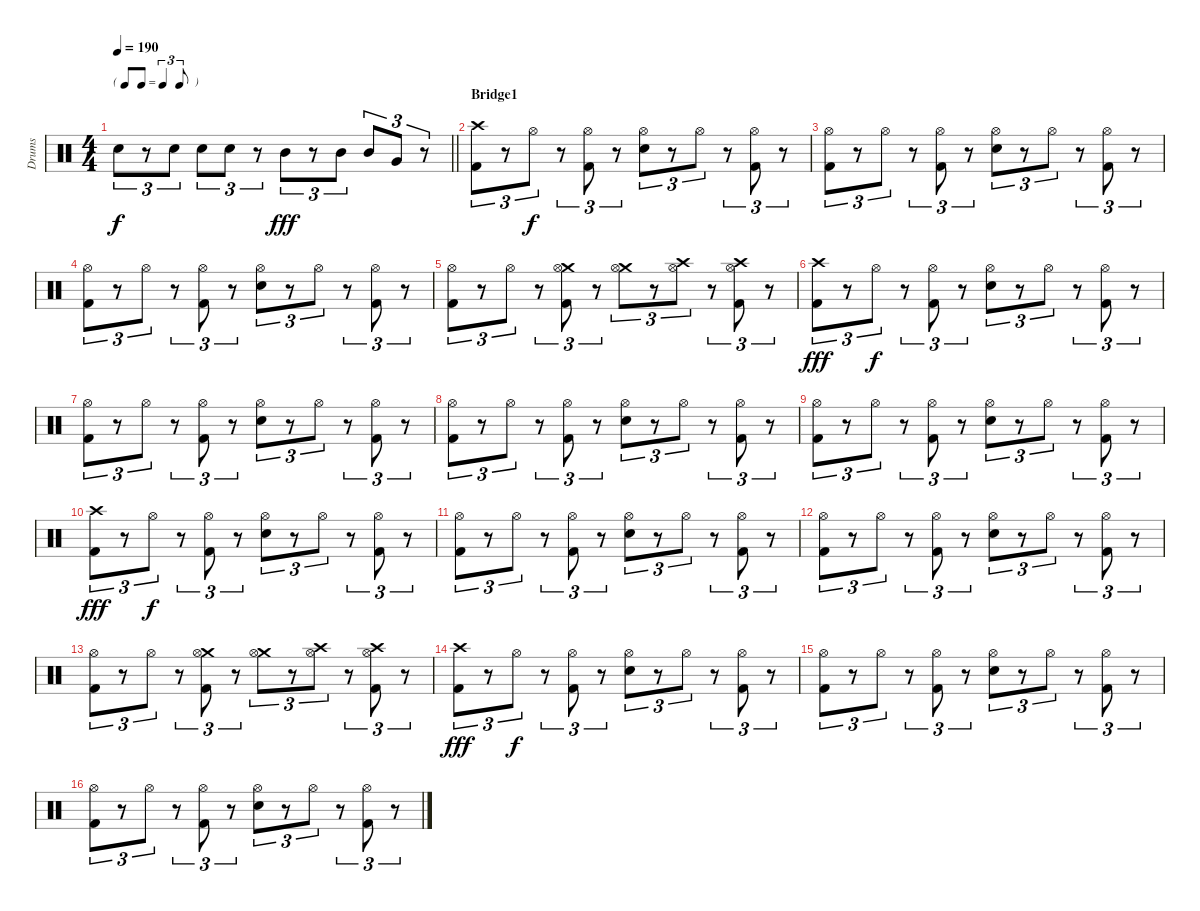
\track ("Drums" "Drums") {instrument percussion}
\staff {score}
\articulation defaults
\ts (4 4)
\tf triplet8th
\tempo 190
\clef neutral
\barLineRight lightlight
\ks c "Electric Snare (hit)".8{tu (3 2) dy f}
r.8{tu (3 2)} "Electric Snare (hit)".8{tu (3 2)} "Electric Snare (hit)".8{tu (3 2)} "Electric Snare (hit)".8{tu (3 2)} r.8{tu (3 2)} "Mid Tom (hit)".8{tu (3 2) dy fff} r.8{tu (3 2)} "Mid Tom (hit)".8{tu (3 2)} "Mid Tom (hit)".8{tu (3 2)} "Very Low Tom (hit)".8{tu (3 2)} r.8{tu (3 2)} |
\section ("" "Bridge1")
("Crash high (hit)" "Kick (hit) 2").8{tu (3 2)} r.8{tu (3 2)} "Hi-Hat (open)".8{tu (3 2) dy f} r.8{tu (3 2)} ("Hi-Hat (open)" "Kick (hit) 2").8{tu (3 2)} r.8{tu (3 2)} ("Hi-Hat (open)" "Electric Snare (hit)").8{tu (3 2)} r.8{tu (3 2)} "Hi-Hat (open)".8{tu (3 2)} r.8{tu (3 2)} ("Hi-Hat (open)" "Kick (hit) 2").8{tu (3 2)} r.8{tu (3 2)} |
("Hi-Hat (open)" "Kick (hit) 2").8{tu (3 2)} r.8{tu (3 2)} "Hi-Hat (open)".8{tu (3 2)} r.8{tu (3 2)} ("Hi-Hat (open)" "Kick (hit) 2").8{tu (3 2)} r.8{tu (3 2)} ("Hi-Hat (open)" "Electric Snare (hit)").8{tu (3 2)} r.8{tu (3 2)} "Hi-Hat (open)".8{tu (3 2)} r.8{tu (3 2)} ("Hi-Hat (open)" "Kick (hit) 2").8{tu (3 2)} r.8{tu (3 2)} |
("Hi-Hat (open)" "Kick (hit) 2").8{tu (3 2)} r.8{tu (3 2)} "Hi-Hat (open)".8{tu (3 2)} r.8{tu (3 2)} ("Hi-Hat (open)" "Kick (hit) 2").8{tu (3 2)} r.8{tu (3 2)} ("Hi-Hat (open)" "Electric Snare (hit)").8{tu (3 2)} r.8{tu (3 2)} "Hi-Hat (open)".8{tu (3 2)} r.8{tu (3 2)} ("Hi-Hat (open)" "Kick (hit) 2").8{tu (3 2)} r.8{tu (3 2)} |
("Hi-Hat (open)" "Kick (hit) 2").8{tu (3 2)} r.8{tu (3 2)} "Hi-Hat (open)".8{tu (3 2)} r.8{tu (3 2)} ("Crash medium (hit)" "Hi-Hat (open)" "Kick (hit) 2").8{tu (3 2)} r.8{tu (3 2)} ("Crash medium (hit)" "Hi-Hat (open)").8{tu (3 2)} r.8{tu (3 2)} ("Crash high (hit)" "Hi-Hat (open)").8{tu (3 2)} r.8{tu (3 2)} ("Crash high (hit)" "Hi-Hat (open)" "Kick (hit) 2").8{tu (3 2)} r.8{tu (3 2)} |
("Crash high (hit)" "Kick (hit) 2").8{tu (3 2) dy fff} r.8{tu (3 2)} "Hi-Hat (open)".8{tu (3 2) dy f} r.8{tu (3 2)} ("Hi-Hat (open)" "Kick (hit) 2").8{tu (3 2)} r.8{tu (3 2)} ("Hi-Hat (open)" "Electric Snare (hit)").8{tu (3 2)} r.8{tu (3 2)} "Hi-Hat (open)".8{tu (3 2)} r.8{tu (3 2)} ("Hi-Hat (open)" "Kick (hit) 2").8{tu (3 2)} r.8{tu (3 2)} |
("Hi-Hat (open)" "Kick (hit) 2").8{tu (3 2)} r.8{tu (3 2)} "Hi-Hat (open)".8{tu (3 2)} r.8{tu (3 2)} ("Hi-Hat (open)" "Kick (hit) 2").8{tu (3 2)} r.8{tu (3 2)} ("Hi-Hat (open)" "Electric Snare (hit)").8{tu (3 2)} r.8{tu (3 2)} "Hi-Hat (open)".8{tu (3 2)} r.8{tu (3 2)} ("Hi-Hat (open)" "Kick (hit) 2").8{tu (3 2)} r.8{tu (3 2)} |
("Hi-Hat (open)" "Kick (hit) 2").8{tu (3 2)} r.8{tu (3 2)} "Hi-Hat (open)".8{tu (3 2)} r.8{tu (3 2)} ("Hi-Hat (open)" "Kick (hit) 2").8{tu (3 2)} r.8{tu (3 2)} ("Hi-Hat (open)" "Electric Snare (hit)").8{tu (3 2)} r.8{tu (3 2)} "Hi-Hat (open)".8{tu (3 2)} r.8{tu (3 2)} ("Hi-Hat (open)" "Kick (hit) 2").8{tu (3 2)} r.8{tu (3 2)} |
("Hi-Hat (open)" "Kick (hit) 2").8{tu (3 2)} r.8{tu (3 2)} "Hi-Hat (open)".8{tu (3 2)} r.8{tu (3 2)} ("Hi-Hat (open)" "Kick (hit) 2").8{tu (3 2)} r.8{tu (3 2)} ("Hi-Hat (open)" "Electric Snare (hit)").8{tu (3 2)} r.8{tu (3 2)} "Hi-Hat (open)".8{tu (3 2)} r.8{tu (3 2)} ("Hi-Hat (open)" "Kick (hit) 2").8{tu (3 2)} r.8{tu (3 2)} |
("Crash high (hit)" "Kick (hit) 2").8{tu (3 2) dy fff} r.8{tu (3 2)} "Hi-Hat (open)".8{tu (3 2) dy f} r.8{tu (3 2)} ("Hi-Hat (open)" "Kick (hit) 2").8{tu (3 2)} r.8{tu (3 2)} ("Hi-Hat (open)" "Electric Snare (hit)").8{tu (3 2)} r.8{tu (3 2)} "Hi-Hat (open)".8{tu (3 2)} r.8{tu (3 2)} ("Hi-Hat (open)" "Kick (hit) 2").8{tu (3 2)} r.8{tu (3 2)} |
("Hi-Hat (open)" "Kick (hit) 2").8{tu (3 2)} r.8{tu (3 2)} "Hi-Hat (open)".8{tu (3 2)} r.8{tu (3 2)} ("Hi-Hat (open)" "Kick (hit) 2").8{tu (3 2)} r.8{tu (3 2)} ("Hi-Hat (open)" "Electric Snare (hit)").8{tu (3 2)} r.8{tu (3 2)} "Hi-Hat (open)".8{tu (3 2)} r.8{tu (3 2)} ("Hi-Hat (open)" "Kick (hit) 2").8{tu (3 2)} r.8{tu (3 2)} |
("Hi-Hat (open)" "Kick (hit) 2").8{tu (3 2)} r.8{tu (3 2)} "Hi-Hat (open)".8{tu (3 2)} r.8{tu (3 2)} ("Hi-Hat (open)" "Kick (hit) 2").8{tu (3 2)} r.8{tu (3 2)} ("Hi-Hat (open)" "Electric Snare (hit)").8{tu (3 2)} r.8{tu (3 2)} "Hi-Hat (open)".8{tu (3 2)} r.8{tu (3 2)} ("Hi-Hat (open)" "Kick (hit) 2").8{tu (3 2)} r.8{tu (3 2)} |
("Hi-Hat (open)" "Kick (hit) 2").8{tu (3 2)} r.8{tu (3 2)} "Hi-Hat (open)".8{tu (3 2)} r.8{tu (3 2)} ("Crash medium (hit)" "Hi-Hat (open)" "Kick (hit) 2").8{tu (3 2)} r.8{tu (3 2)} ("Crash medium (hit)" "Hi-Hat (open)").8{tu (3 2)} r.8{tu (3 2)} ("Crash high (hit)" "Hi-Hat (open)").8{tu (3 2)} r.8{tu (3 2)} ("Crash high (hit)" "Hi-Hat (open)" "Kick (hit) 2").8{tu (3 2)} r.8{tu (3 2)} |
("Crash high (hit)" "Kick (hit) 2").8{tu (3 2) dy fff} r.8{tu (3 2)} "Hi-Hat (open)".8{tu (3 2) dy f} r.8{tu (3 2)} ("Hi-Hat (open)" "Kick (hit) 2").8{tu (3 2)} r.8{tu (3 2)} ("Hi-Hat (open)" "Electric Snare (hit)").8{tu (3 2)} r.8{tu (3 2)} "Hi-Hat (open)".8{tu (3 2)} r.8{tu (3 2)} ("Hi-Hat (open)" "Kick (hit) 2").8{tu (3 2)} r.8{tu (3 2)} |
("Hi-Hat (open)" "Kick (hit) 2").8{tu (3 2)} r.8{tu (3 2)} "Hi-Hat (open)".8{tu (3 2)} r.8{tu (3 2)} ("Hi-Hat (open)" "Kick (hit) 2").8{tu (3 2)} r.8{tu (3 2)} ("Hi-Hat (open)" "Electric Snare (hit)").8{tu (3 2)} r.8{tu (3 2)} "Hi-Hat (open)".8{tu (3 2)} r.8{tu (3 2)} ("Hi-Hat (open)" "Kick (hit) 2").8{tu (3 2)} r.8{tu (3 2)} |
("Hi-Hat (open)" "Kick (hit) 2").8{tu (3 2)} r.8{tu (3 2)} "Hi-Hat (open)".8{tu (3 2)} r.8{tu (3 2)} ("Hi-Hat (open)" "Kick (hit) 2").8{tu (3 2)} r.8{tu (3 2)} ("Hi-Hat (open)" "Electric Snare (hit)").8{tu (3 2)} r.8{tu (3 2)} "Hi-Hat (open)".8{tu (3 2)} r.8{tu (3 2)} ("Hi-Hat (open)" "Kick (hit) 2").8{tu (3 2)} r.8{tu (3 2)}
